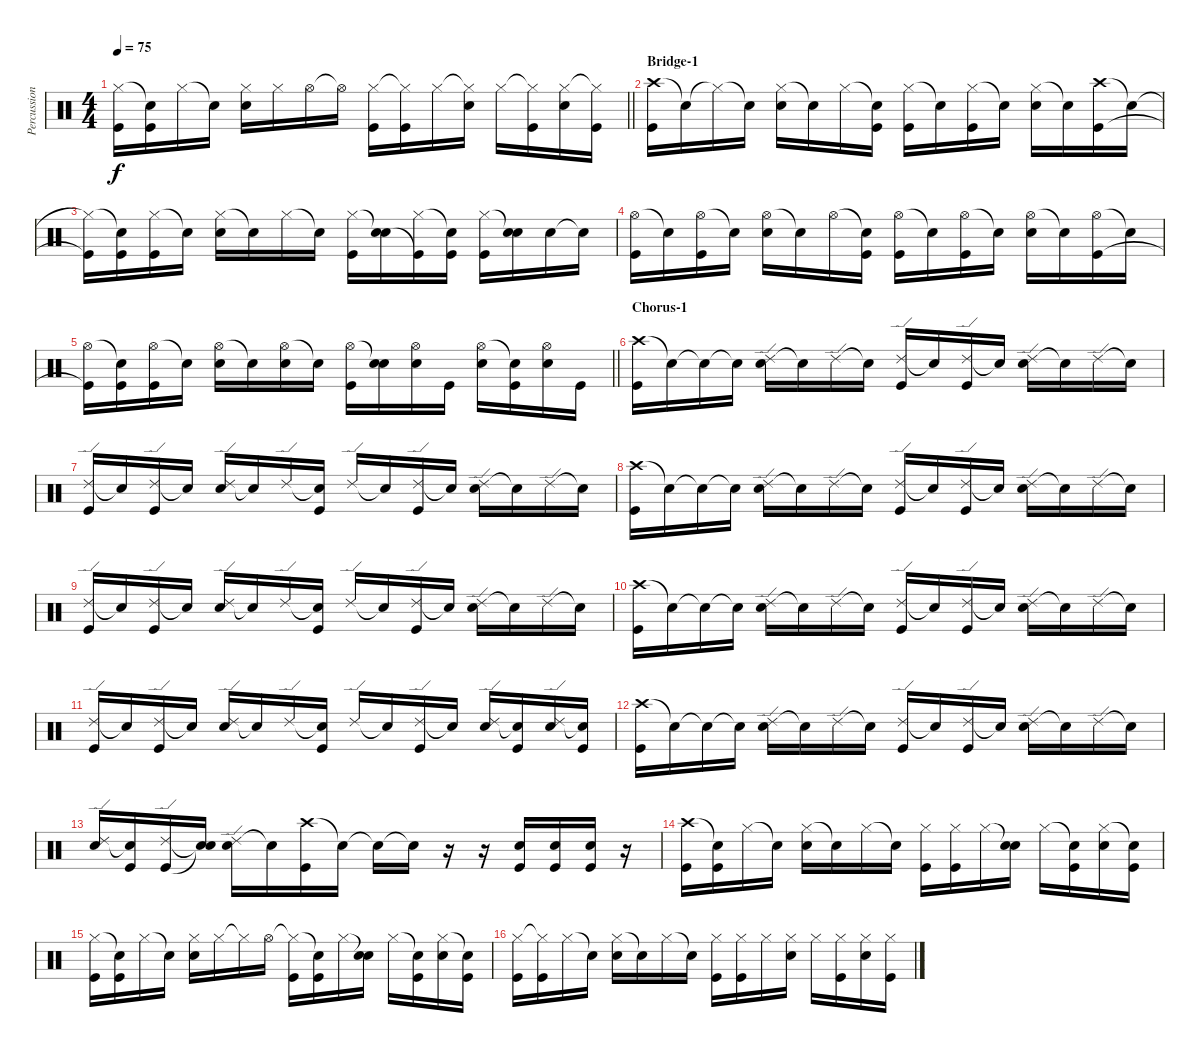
\track ("Percussion" "Percussion") {instrument percussion}
\staff {score}
\articulation defaults
\ts (4 4)
\tempo 75
\clef neutral
\barLineRight lightlight
\ks c
("Hi-Hat (closed)" "Kick (hit)").16{dy f} ("Snare (hit)"{t} "Kick (hit)").16 "Hi-Hat (closed)".16 "Snare (hit)"{t}.16 ("Hi-Hat (closed)" "Electric Snare (hit)").16 "Hi-Hat (closed)".16 "Hi-Hat (open)".16 "Hi-Hat (open)"{t}.16 ("Hi-Hat (closed)" "Kick (hit)").16 ("Hi-Hat (closed)"{t} "Kick (hit)").16 "Hi-Hat (closed)".16 ("Hi-Hat (closed)"{t} "Electric Snare (hit)").16 "Hi-Hat (closed)".16 ("Hi-Hat (closed)"{t} "Kick (hit)").16 ("Hi-Hat (closed)" "Electric Snare (hit)").16 ("Hi-Hat (closed)"{t} "Kick (hit)").16 |
\section ("" "Bridge-1")
("Crash high (hit)" "Kick (hit)").16 "Snare (hit)"{t}.16 "Hi-Hat (closed)"{t}.16 "Snare (hit)"{t}.16 ("Hi-Hat (closed)" "Electric Snare (hit)").16 "Snare (hit)"{t}.16 "Hi-Hat (closed)".16 ("Snare (hit)"{t} "Kick (hit)").16 ("Hi-Hat (closed)" "Kick (hit)").16 "Snare (hit)"{t}.16 ("Hi-Hat (closed)" "Kick (hit)").16 "Snare (hit)"{t}.16 ("Hi-Hat (closed)" "Electric Snare (hit)").16 "Snare (hit)"{t}.16 ("Crash high (hit)" "Kick (hit)").16 "Snare (hit)"{t}.16 |
("Hi-Hat (closed)"{t} "Kick (hit)"{t}).16 ("Snare (hit)"{t} "Kick (hit)").16 ("Hi-Hat (closed)" "Kick (hit)").16 "Snare (hit)"{t}.16 ("Hi-Hat (closed)" "Electric Snare (hit)").16 "Snare (hit)"{t}.16 "Hi-Hat (closed)".16 "Snare (hit)"{t}.16 ("Hi-Hat (closed)" "Kick (hit)").16 ("Snare (hit)"{t} "Electric Snare (hit)").16 ("Hi-Hat (closed)" "Kick (hit)"{t}).16 ("Snare (hit)"{t} "Kick (hit)").16 ("Hi-Hat (closed)" "Kick (hit)").16 ("Snare (hit)"{t} "Electric Snare (hit)").16 "Electric Snare (hit)".16 "Electric Snare (hit)"{t}.16 |
("Hi-Hat (open)" "Kick (hit)").16 "Snare (hit)"{t}.16 ("Hi-Hat (open)" "Kick (hit)").16 "Snare (hit)"{t}.16 ("Hi-Hat (open)" "Electric Snare (hit)").16 "Snare (hit)"{t}.16 "Hi-Hat (open)".16 ("Snare (hit)"{t} "Kick (hit)").16 ("Hi-Hat (open)" "Kick (hit)").16 "Snare (hit)"{t}.16 ("Hi-Hat (open)" "Kick (hit)").16 "Snare (hit)"{t}.16 ("Hi-Hat (open)" "Electric Snare (hit)").16 "Snare (hit)"{t}.16 ("Hi-Hat (open)" "Kick (hit)").16 "Snare (hit)"{t}.16 |
\barLineRight lightlight
("Hi-Hat (open)" "Kick (hit)"{t}).16 ("Snare (hit)"{t} "Kick (hit)").16 ("Hi-Hat (open)" "Kick (hit)").16 "Snare (hit)"{t}.16 ("Hi-Hat (open)" "Electric Snare (hit)").16 "Snare (hit)"{t}.16 ("Hi-Hat (open)" "Electric Snare (hit)").16 "Snare (hit)"{t}.16 ("Hi-Hat (open)" "Kick (hit)").16 ("Snare (hit)"{t} "Electric Snare (hit)").16 ("Hi-Hat (open)" "Electric Snare (hit)").16 "Kick (hit)".16 ("Hi-Hat (open)" "Electric Snare (hit)").16 ("Snare (hit)"{t} "Kick (hit)").16 ("Hi-Hat (open)" "Electric Snare (hit)").16 "Kick (hit)".16 |
\section ("" "Chorus-1")
("Crash high (hit)" "Kick (hit)").16 "Snare (hit)"{t}.16 "Snare (hit)"{t}.16 "Snare (hit)"{t}.16 ("Ride (edge) 2" "Electric Snare (hit)").16 "Snare (hit)"{t}.16 "Ride (edge) 2".16 "Snare (hit)"{t}.16 ("Ride (edge) 2" "Kick (hit)").16 "Snare (hit)"{t}.16 ("Ride (edge) 2" "Kick (hit)").16 "Snare (hit)"{t}.16 ("Ride (edge) 2" "Electric Snare (hit)").16 "Snare (hit)"{t}.16 "Ride (edge) 2".16 "Snare (hit)"{t}.16 |
("Ride (edge) 2" "Kick (hit)").16 "Snare (hit)"{t}.16 ("Ride (edge) 2" "Kick (hit)").16 "Snare (hit)"{t}.16 ("Ride (edge) 2" "Electric Snare (hit)").16 "Snare (hit)"{t}.16 "Ride (edge) 2".16 ("Snare (hit)"{t} "Kick (hit)").16 "Ride (edge) 2".16 "Snare (hit)"{t}.16 ("Ride (edge) 2" "Kick (hit)").16 "Snare (hit)"{t}.16 ("Ride (edge) 2" "Electric Snare (hit)").16 "Snare (hit)"{t}.16 "Ride (edge) 2".16 "Snare (hit)"{t}.16 |
("Crash high (hit)" "Kick (hit)").16 "Snare (hit)"{t}.16 "Snare (hit)"{t}.16 "Snare (hit)"{t}.16 ("Ride (edge) 2" "Electric Snare (hit)").16 "Snare (hit)"{t}.16 "Ride (edge) 2".16 "Snare (hit)"{t}.16 ("Ride (edge) 2" "Kick (hit)").16 "Snare (hit)"{t}.16 ("Ride (edge) 2" "Kick (hit)").16 "Snare (hit)"{t}.16 ("Ride (edge) 2" "Electric Snare (hit)").16 "Snare (hit)"{t}.16 "Ride (edge) 2".16 "Snare (hit)"{t}.16 |
("Ride (edge) 2" "Kick (hit)").16 "Snare (hit)"{t}.16 ("Ride (edge) 2" "Kick (hit)").16 "Snare (hit)"{t}.16 ("Ride (edge) 2" "Electric Snare (hit)").16 "Snare (hit)"{t}.16 "Ride (edge) 2".16 ("Snare (hit)"{t} "Kick (hit)").16 "Ride (edge) 2".16 "Snare (hit)"{t}.16 ("Ride (edge) 2" "Kick (hit)").16 "Snare (hit)"{t}.16 ("Ride (edge) 2" "Electric Snare (hit)").16 "Snare (hit)"{t}.16 "Ride (edge) 2".16 "Snare (hit)"{t}.16 |
("Crash high (hit)" "Kick (hit)").16 "Snare (hit)"{t}.16 "Snare (hit)"{t}.16 "Snare (hit)"{t}.16 ("Ride (edge) 2" "Electric Snare (hit)").16 "Snare (hit)"{t}.16 "Ride (edge) 2".16 "Snare (hit)"{t}.16 ("Ride (edge) 2" "Kick (hit)").16 "Snare (hit)"{t}.16 ("Ride (edge) 2" "Kick (hit)").16 "Snare (hit)"{t}.16 ("Ride (edge) 2" "Electric Snare (hit)").16 "Snare (hit)"{t}.16 "Ride (edge) 2".16 "Snare (hit)"{t}.16 |
("Ride (edge) 2" "Kick (hit)").16 "Snare (hit)"{t}.16 ("Ride (edge) 2" "Kick (hit)").16 "Snare (hit)"{t}.16 ("Ride (edge) 2" "Electric Snare (hit)").16 "Snare (hit)"{t}.16 "Ride (edge) 2".16 ("Snare (hit)"{t} "Kick (hit)").16 "Ride (edge) 2".16 "Snare (hit)"{t}.16 ("Ride (edge) 2" "Kick (hit)").16 "Snare (hit)"{t}.16 ("Ride (edge) 2" "Electric Snare (hit)").16 ("Snare (hit)"{t} "Kick (hit)").16 ("Ride (edge) 2" "Electric Snare (hit)").16 ("Snare (hit)"{t} "Kick (hit)").16 |
("Crash high (hit)" "Kick (hit)").16 "Snare (hit)"{t}.16 "Snare (hit)"{t}.16 "Snare (hit)"{t}.16 ("Ride (edge) 2" "Electric Snare (hit)").16 "Snare (hit)"{t}.16 "Ride (edge) 2".16 "Snare (hit)"{t}.16 ("Ride (edge) 2" "Kick (hit)").16 "Snare (hit)"{t}.16 ("Ride (edge) 2" "Kick (hit)").16 "Snare (hit)"{t}.16 ("Ride (edge) 2" "Electric Snare (hit)").16 "Snare (hit)"{t}.16 "Ride (edge) 2".16 "Snare (hit)"{t}.16 |
("Ride (edge) 2" "Electric Snare (hit)").16 ("Snare (hit)"{t} "Kick (hit)").16 ("Ride (edge) 2" "Kick (hit)").16 ("Snare (hit)"{t} "Electric Snare (hit)"{t}).16 ("Ride (edge) 2" "Electric Snare (hit)").16 "Snare (hit)"{t}.16 ("Crash high (hit)" "Kick (hit)").16 "Snare (hit)"{t}.16 "Snare (hit)"{t}.16 "Snare (hit)"{t}.16 r.16 r.16 ("Kick (hit)" "Electric Snare (hit)").16 ("Kick (hit)" "Electric Snare (hit)").16 ("Kick (hit)" "Electric Snare (hit)").16 r.16 |
("Crash high (hit)" "Kick (hit)").16 ("Snare (hit)"{t} "Kick (hit)").16 "Hi-Hat (closed)".16 "Snare (hit)"{t}.16 ("Hi-Hat (closed)" "Electric Snare (hit)").16 "Snare (hit)"{t}.16 "Hi-Hat (closed)".16 "Snare (hit)"{t}.16 ("Hi-Hat (closed)" "Kick (hit)").16 ("Hi-Hat (closed)" "Kick (hit)").16 "Hi-Hat (closed)".16 ("Snare (hit)"{t} "Electric Snare (hit)").16 "Hi-Hat (closed)".16 ("Snare (hit)"{t} "Kick (hit)").16 ("Hi-Hat (closed)" "Electric Snare (hit)").16 ("Snare (hit)"{t} "Kick (hit)").16 |
("Hi-Hat (closed)" "Kick (hit)").16 ("Snare (hit)"{t} "Kick (hit)").16 "Hi-Hat (closed)".16 "Snare (hit)"{t}.16 ("Hi-Hat (closed)" "Electric Snare (hit)").16 "Hi-Hat (closed)".16 "Hi-Hat (closed)"{t}.16 "Hi-Hat (open)".16 ("Hi-Hat (closed)"{t} "Kick (hit)").16 ("Snare (hit)"{t} "Kick (hit)").16 "Hi-Hat (closed)".16 ("Snare (hit)"{t} "Electric Snare (hit)").16 "Hi-Hat (closed)".16 ("Snare (hit)"{t} "Kick (hit)").16 ("Hi-Hat (closed)" "Electric Snare (hit)").16 ("Snare (hit)"{t} "Kick (hit)").16 |
("Hi-Hat (closed)" "Kick (hit)").16 ("Hi-Hat (closed)"{t} "Kick (hit)").16 "Hi-Hat (closed)".16 "Snare (hit)"{t}.16 ("Hi-Hat (closed)" "Electric Snare (hit)").16 "Snare (hit)"{t}.16 "Hi-Hat (closed)".16 "Snare (hit)"{t}.16 ("Hi-Hat (closed)" "Kick (hit)").16 ("Hi-Hat (closed)" "Kick (hit)").16 "Hi-Hat (closed)".16 ("Hi-Hat (closed)" "Electric Snare (hit)").16 "Hi-Hat (closed)".16 ("Hi-Hat (closed)" "Kick (hit)").16 ("Hi-Hat (closed)" "Electric Snare (hit)").16 ("Hi-Hat (closed)" "Kick (hit)").16
